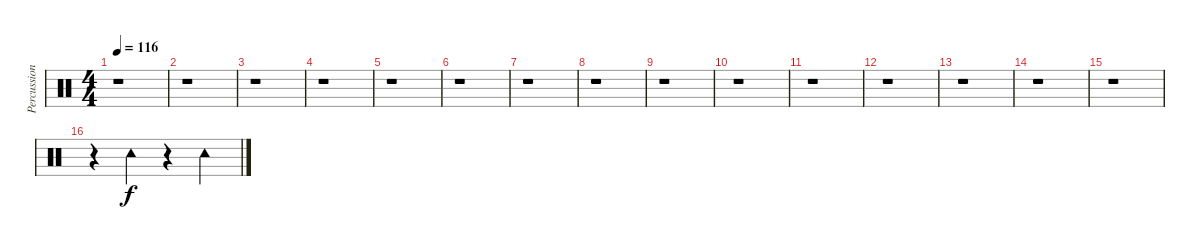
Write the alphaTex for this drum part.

\track ("Percussion" "Percussion") {instrument percussion}
\staff {score}
\articulation defaults
\ts (4 4)
\tempo 116
\clef neutral
\ks c
r.1{dy f} |
r.1 |
r.1 |
r.1 |
r.1 |
r.1 |
r.1 |
r.1 |
r.1 |
r.1 |
r.1 |
r.1 |
r.1 |
r.1 |
r.1 |
r.4 "Tambourine (hit)".4 r.4 "Tambourine (hit)".4
